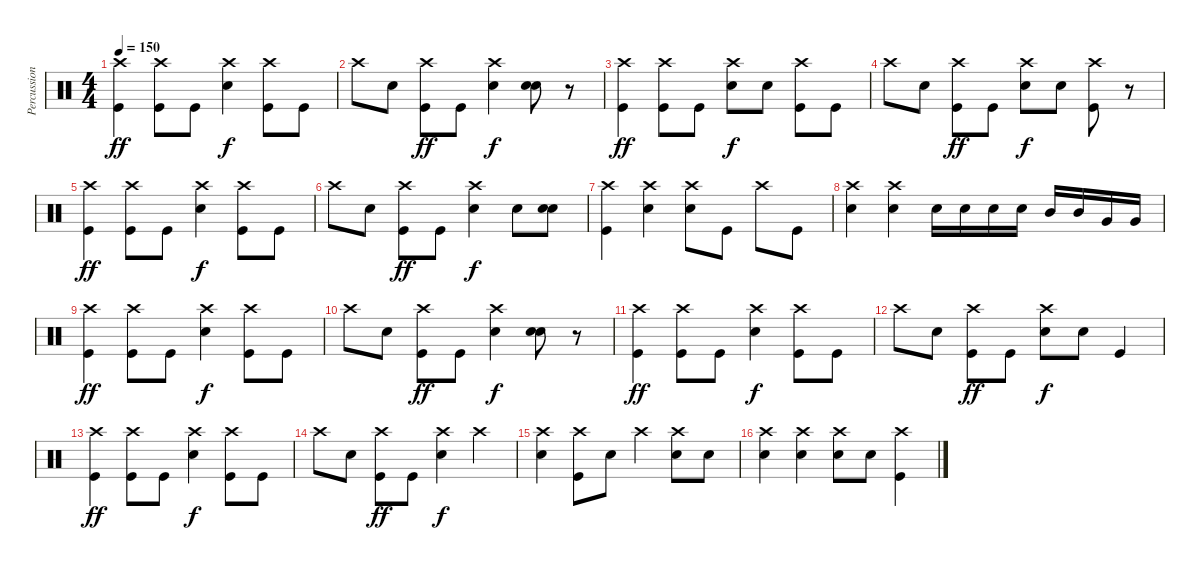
\track ("Percussion" "Percussion") {instrument percussion}
\staff {score}
\articulation defaults
\ts (4 4)
\tempo 150
\clef neutral
\ks c
("Crash high (hit)" "Kick (hit)").4{dy ff} ("Crash high (hit)" "Kick (hit)").8 "Kick (hit)".8 ("Crash high (hit)" "Snare (hit) 2").4{dy f} ("Crash high (hit)" "Kick (hit)").8 "Kick (hit)".8 |
"Crash high (hit)".8 "Snare (hit) 2".8 ("Crash high (hit)" "Kick (hit)").8{dy ff} "Kick (hit)".8 ("Crash high (hit)" "Snare (hit) 2").4{dy f} ("Snare (hit) 2" "Snare (hit) 2").8 r.8 |
("Crash high (hit)" "Kick (hit)").4{dy ff} ("Crash high (hit)" "Kick (hit)").8 "Kick (hit)".8 ("Crash high (hit)" "Snare (hit) 2").8{dy f} "Snare (hit) 2".8 ("Crash high (hit)" "Kick (hit)").8 "Kick (hit)".8 |
"Crash high (hit)".8 "Snare (hit) 2".8 ("Crash high (hit)" "Kick (hit)").8{dy ff} "Kick (hit)".8 ("Crash high (hit)" "Snare (hit) 2").8{dy f} "Snare (hit) 2".8 ("Crash high (hit)" "Kick (hit)").8 r.8 |
("Crash high (hit)" "Kick (hit)").4{dy ff} ("Crash high (hit)" "Kick (hit)").8 "Kick (hit)".8 ("Crash high (hit)" "Snare (hit) 2").4{dy f} ("Crash high (hit)" "Kick (hit)").8 "Kick (hit)".8 |
"Crash high (hit)".8 "Snare (hit) 2".8 ("Crash high (hit)" "Kick (hit)").8{dy ff} "Kick (hit)".8 ("Crash high (hit)" "Snare (hit) 2").4{dy f} "Snare (hit) 2".8 ("Snare (hit) 2" "Snare (hit) 2").8 |
("Crash high (hit)" "Kick (hit)").4 ("Crash high (hit)" "Snare (hit) 2").4 ("Crash high (hit)" "Snare (hit) 2").8 "Kick (hit)".8 "Crash high (hit)".8 "Kick (hit)".8 |
("Crash high (hit)" "Snare (hit) 2").4 ("Crash high (hit)" "Snare (hit) 2").4 "Snare (hit) 2".16 "Snare (hit) 2".16 "Snare (hit) 2".16 "Snare (hit) 2".16 "Mid Tom (hit)".16 "Mid Tom (hit)".16 "Very Low Tom (hit)".16 "Very Low Tom (hit)".16 |
("Crash high (hit)" "Kick (hit)").4{dy ff} ("Crash high (hit)" "Kick (hit)").8 "Kick (hit)".8 ("Crash high (hit)" "Snare (hit) 2").4{dy f} ("Crash high (hit)" "Kick (hit)").8 "Kick (hit)".8 |
"Crash high (hit)".8 "Snare (hit) 2".8 ("Crash high (hit)" "Kick (hit)").8{dy ff} "Kick (hit)".8 ("Crash high (hit)" "Snare (hit) 2").4{dy f} ("Snare (hit) 2" "Snare (hit) 2").8 r.8 |
("Crash high (hit)" "Kick (hit)").4{dy ff} ("Crash high (hit)" "Kick (hit)").8 "Kick (hit)".8 ("Crash high (hit)" "Snare (hit) 2").4{dy f} ("Crash high (hit)" "Kick (hit)").8 "Kick (hit)".8 |
"Crash high (hit)".8 "Snare (hit) 2".8 ("Crash high (hit)" "Kick (hit)").8{dy ff} "Kick (hit)".8 ("Crash high (hit)" "Snare (hit) 2").8{dy f} "Snare (hit) 2".8 "Kick (hit)".4 |
("Crash high (hit)" "Kick (hit)").4{dy ff} ("Crash high (hit)" "Kick (hit)").8 "Kick (hit)".8 ("Crash high (hit)" "Snare (hit) 2").4{dy f} ("Crash high (hit)" "Kick (hit)").8 "Kick (hit)".8 |
"Crash high (hit)".8 "Snare (hit) 2".8 ("Crash high (hit)" "Kick (hit)").8{dy ff} "Kick (hit)".8 ("Crash high (hit)" "Snare (hit) 2").4{dy f} "Crash high (hit)".4 |
("Crash high (hit)" "Snare (hit) 2").4 ("Crash high (hit)" "Kick (hit)").8 "Snare (hit) 2".8 "Crash high (hit)".4 ("Crash high (hit)" "Snare (hit) 2").8 "Snare (hit) 2".8 |
("Crash high (hit)" "Snare (hit) 2").4 ("Crash high (hit)" "Snare (hit) 2").4 ("Crash high (hit)" "Snare (hit) 2").8 "Snare (hit) 2".8 ("Crash high (hit)" "Kick (hit)").4
